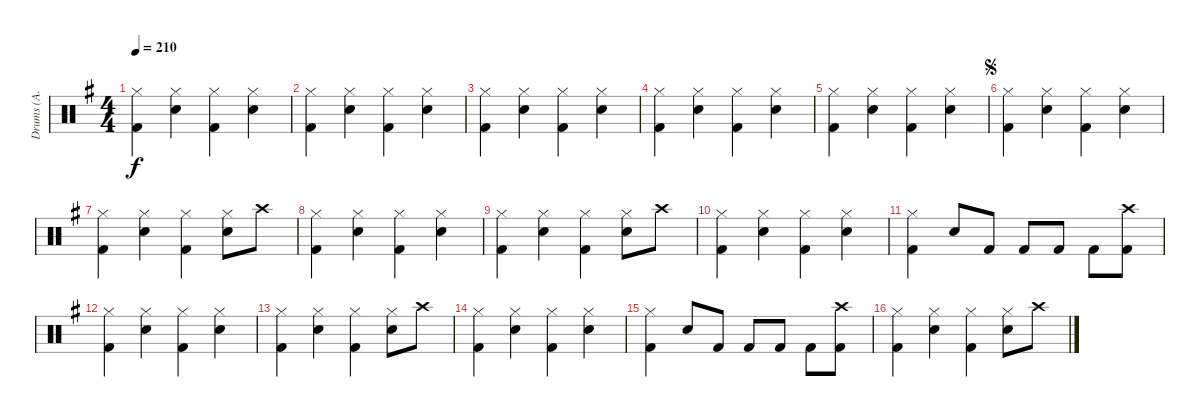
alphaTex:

\track ("Drums (А. Манякин)" "Drums (А. ") {instrument percussion}
\staff {score}
\articulation defaults
\ts (4 4)
\tempo 210
\clef neutral
\ks g
("Hi-Hat (closed)" "Kick (hit) 2").4{dy f} ("Hi-Hat (closed)" "Snare (hit) 2").4 ("Hi-Hat (closed)" "Kick (hit) 2").4 ("Hi-Hat (closed)" "Snare (hit) 2").4 |
("Hi-Hat (closed)" "Kick (hit) 2").4 ("Hi-Hat (closed)" "Snare (hit) 2").4 ("Hi-Hat (closed)" "Kick (hit) 2").4 ("Hi-Hat (closed)" "Snare (hit) 2").4 |
("Hi-Hat (closed)" "Kick (hit) 2").4 ("Hi-Hat (closed)" "Snare (hit) 2").4 ("Hi-Hat (closed)" "Kick (hit) 2").4 ("Hi-Hat (closed)" "Snare (hit) 2").4 |
("Hi-Hat (closed)" "Kick (hit) 2").4 ("Hi-Hat (closed)" "Snare (hit) 2").4 ("Hi-Hat (closed)" "Kick (hit) 2").4 ("Hi-Hat (closed)" "Snare (hit) 2").4 |
("Hi-Hat (closed)" "Kick (hit) 2").4 ("Hi-Hat (closed)" "Snare (hit) 2").4 ("Hi-Hat (closed)" "Kick (hit) 2").4 ("Hi-Hat (closed)" "Snare (hit) 2").4 |
\jump segno
("Hi-Hat (closed)" "Kick (hit) 2").4 ("Hi-Hat (closed)" "Snare (hit) 2").4 ("Hi-Hat (closed)" "Kick (hit) 2").4 ("Hi-Hat (closed)" "Snare (hit) 2").4 |
("Hi-Hat (closed)" "Kick (hit) 2").4 ("Hi-Hat (closed)" "Snare (hit) 2").4 ("Hi-Hat (closed)" "Kick (hit) 2").4 ("Hi-Hat (closed)" "Snare (hit) 2").8 "Crash high (hit)".8 |
("Hi-Hat (closed)" "Kick (hit) 2").4 ("Hi-Hat (closed)" "Snare (hit) 2").4 ("Hi-Hat (closed)" "Kick (hit) 2").4 ("Hi-Hat (closed)" "Snare (hit) 2").4 |
("Hi-Hat (closed)" "Kick (hit) 2").4 ("Hi-Hat (closed)" "Snare (hit) 2").4 ("Hi-Hat (closed)" "Kick (hit) 2").4 ("Hi-Hat (closed)" "Snare (hit) 2").8 "Crash high (hit)".8 |
("Hi-Hat (closed)" "Kick (hit) 2").4 ("Hi-Hat (closed)" "Snare (hit) 2").4 ("Hi-Hat (closed)" "Kick (hit) 2").4 ("Hi-Hat (closed)" "Snare (hit) 2").4 |
("Hi-Hat (closed)" "Kick (hit) 2").4 "Snare (hit) 2".8 "Kick (hit) 2".8 "Kick (hit) 2".8 "Kick (hit) 2".8 "Kick (hit) 2".8 ("Crash high (hit)" "Kick (hit) 2").8 |
("Hi-Hat (closed)" "Kick (hit) 2").4 ("Hi-Hat (closed)" "Snare (hit) 2").4 ("Hi-Hat (closed)" "Kick (hit) 2").4 ("Hi-Hat (closed)" "Snare (hit) 2").4 |
("Hi-Hat (closed)" "Kick (hit) 2").4 ("Hi-Hat (closed)" "Snare (hit) 2").4 ("Hi-Hat (closed)" "Kick (hit) 2").4 ("Hi-Hat (closed)" "Snare (hit) 2").8 "Crash high (hit)".8 |
("Hi-Hat (closed)" "Kick (hit) 2").4 ("Hi-Hat (closed)" "Snare (hit) 2").4 ("Hi-Hat (closed)" "Kick (hit) 2").4 ("Hi-Hat (closed)" "Snare (hit) 2").4 |
("Hi-Hat (closed)" "Kick (hit) 2").4 "Snare (hit) 2".8 "Kick (hit) 2".8 "Kick (hit) 2".8 "Kick (hit) 2".8 "Kick (hit) 2".8 ("Crash high (hit)" "Kick (hit) 2").8 |
("Hi-Hat (closed)" "Kick (hit) 2").4 ("Hi-Hat (closed)" "Snare (hit) 2").4 ("Hi-Hat (closed)" "Kick (hit) 2").4 ("Hi-Hat (closed)" "Snare (hit) 2").8 "Crash high (hit)".8
